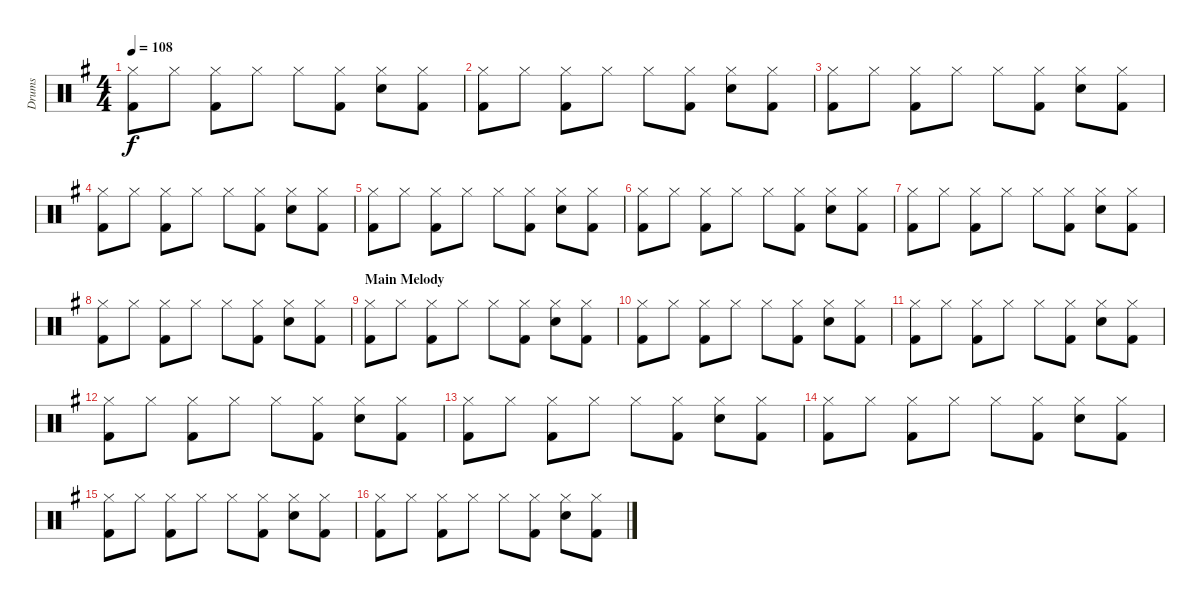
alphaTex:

\track ("Drums" "Drums") {instrument percussion}
\staff {score}
\articulation defaults
\ts (4 4)
\tempo 108
\clef neutral
\ks g
("Hi-Hat (closed)" "Kick (hit) 2").8{dy f} "Hi-Hat (closed)".8 ("Hi-Hat (closed)" "Kick (hit) 2").8 "Hi-Hat (closed)".8 "Hi-Hat (closed)".8 ("Hi-Hat (closed)" "Kick (hit) 2").8 ("Hi-Hat (closed)" "Snare (hit) 2").8 ("Hi-Hat (closed)" "Kick (hit) 2").8 |
("Hi-Hat (closed)" "Kick (hit) 2").8 "Hi-Hat (closed)".8 ("Hi-Hat (closed)" "Kick (hit) 2").8 "Hi-Hat (closed)".8 "Hi-Hat (closed)".8 ("Hi-Hat (closed)" "Kick (hit) 2").8 ("Hi-Hat (closed)" "Snare (hit) 2").8 ("Hi-Hat (closed)" "Kick (hit) 2").8 |
("Hi-Hat (closed)" "Kick (hit) 2").8 "Hi-Hat (closed)".8 ("Hi-Hat (closed)" "Kick (hit) 2").8 "Hi-Hat (closed)".8 "Hi-Hat (closed)".8 ("Hi-Hat (closed)" "Kick (hit) 2").8 ("Hi-Hat (closed)" "Snare (hit) 2").8 ("Hi-Hat (closed)" "Kick (hit) 2").8 |
("Hi-Hat (closed)" "Kick (hit) 2").8 "Hi-Hat (closed)".8 ("Hi-Hat (closed)" "Kick (hit) 2").8 "Hi-Hat (closed)".8 "Hi-Hat (closed)".8 ("Hi-Hat (closed)" "Kick (hit) 2").8 ("Hi-Hat (closed)" "Snare (hit) 2").8 ("Hi-Hat (closed)" "Kick (hit) 2").8 |
("Hi-Hat (closed)" "Kick (hit) 2").8 "Hi-Hat (closed)".8 ("Hi-Hat (closed)" "Kick (hit) 2").8 "Hi-Hat (closed)".8 "Hi-Hat (closed)".8 ("Hi-Hat (closed)" "Kick (hit) 2").8 ("Hi-Hat (closed)" "Snare (hit) 2").8 ("Hi-Hat (closed)" "Kick (hit) 2").8 |
("Hi-Hat (closed)" "Kick (hit) 2").8 "Hi-Hat (closed)".8 ("Hi-Hat (closed)" "Kick (hit) 2").8 "Hi-Hat (closed)".8 "Hi-Hat (closed)".8 ("Hi-Hat (closed)" "Kick (hit) 2").8 ("Hi-Hat (closed)" "Snare (hit) 2").8 ("Hi-Hat (closed)" "Kick (hit) 2").8 |
("Hi-Hat (closed)" "Kick (hit) 2").8 "Hi-Hat (closed)".8 ("Hi-Hat (closed)" "Kick (hit) 2").8 "Hi-Hat (closed)".8 "Hi-Hat (closed)".8 ("Hi-Hat (closed)" "Kick (hit) 2").8 ("Hi-Hat (closed)" "Snare (hit) 2").8 ("Hi-Hat (closed)" "Kick (hit) 2").8 |
("Hi-Hat (closed)" "Kick (hit) 2").8 "Hi-Hat (closed)".8 ("Hi-Hat (closed)" "Kick (hit) 2").8 "Hi-Hat (closed)".8 "Hi-Hat (closed)".8 ("Hi-Hat (closed)" "Kick (hit) 2").8 ("Hi-Hat (closed)" "Snare (hit) 2").8 ("Hi-Hat (closed)" "Kick (hit) 2").8 |
\section ("" "Main Melody")
("Hi-Hat (closed)" "Kick (hit) 2").8 "Hi-Hat (closed)".8 ("Hi-Hat (closed)" "Kick (hit) 2").8 "Hi-Hat (closed)".8 "Hi-Hat (closed)".8 ("Hi-Hat (closed)" "Kick (hit) 2").8 ("Hi-Hat (closed)" "Snare (hit) 2").8 ("Hi-Hat (closed)" "Kick (hit) 2").8 |
("Hi-Hat (closed)" "Kick (hit) 2").8 "Hi-Hat (closed)".8 ("Hi-Hat (closed)" "Kick (hit) 2").8 "Hi-Hat (closed)".8 "Hi-Hat (closed)".8 ("Hi-Hat (closed)" "Kick (hit) 2").8 ("Hi-Hat (closed)" "Snare (hit) 2").8 ("Hi-Hat (closed)" "Kick (hit) 2").8 |
("Hi-Hat (closed)" "Kick (hit) 2").8 "Hi-Hat (closed)".8 ("Hi-Hat (closed)" "Kick (hit) 2").8 "Hi-Hat (closed)".8 "Hi-Hat (closed)".8 ("Hi-Hat (closed)" "Kick (hit) 2").8 ("Hi-Hat (closed)" "Snare (hit) 2").8 ("Hi-Hat (closed)" "Kick (hit) 2").8 |
("Hi-Hat (closed)" "Kick (hit) 2").8 "Hi-Hat (closed)".8 ("Hi-Hat (closed)" "Kick (hit) 2").8 "Hi-Hat (closed)".8 "Hi-Hat (closed)".8 ("Hi-Hat (closed)" "Kick (hit) 2").8 ("Hi-Hat (closed)" "Snare (hit) 2").8 ("Hi-Hat (closed)" "Kick (hit) 2").8 |
("Hi-Hat (closed)" "Kick (hit) 2").8 "Hi-Hat (closed)".8 ("Hi-Hat (closed)" "Kick (hit) 2").8 "Hi-Hat (closed)".8 "Hi-Hat (closed)".8 ("Hi-Hat (closed)" "Kick (hit) 2").8 ("Hi-Hat (closed)" "Snare (hit) 2").8 ("Hi-Hat (closed)" "Kick (hit) 2").8 |
("Hi-Hat (closed)" "Kick (hit) 2").8 "Hi-Hat (closed)".8 ("Hi-Hat (closed)" "Kick (hit) 2").8 "Hi-Hat (closed)".8 "Hi-Hat (closed)".8 ("Hi-Hat (closed)" "Kick (hit) 2").8 ("Hi-Hat (closed)" "Snare (hit) 2").8 ("Hi-Hat (closed)" "Kick (hit) 2").8 |
("Hi-Hat (closed)" "Kick (hit) 2").8 "Hi-Hat (closed)".8 ("Hi-Hat (closed)" "Kick (hit) 2").8 "Hi-Hat (closed)".8 "Hi-Hat (closed)".8 ("Hi-Hat (closed)" "Kick (hit) 2").8 ("Hi-Hat (closed)" "Snare (hit) 2").8 ("Hi-Hat (closed)" "Kick (hit) 2").8 |
("Hi-Hat (closed)" "Kick (hit) 2").8 "Hi-Hat (closed)".8 ("Hi-Hat (closed)" "Kick (hit) 2").8 "Hi-Hat (closed)".8 "Hi-Hat (closed)".8 ("Hi-Hat (closed)" "Kick (hit) 2").8 ("Hi-Hat (closed)" "Snare (hit) 2").8 ("Hi-Hat (closed)" "Kick (hit) 2").8
